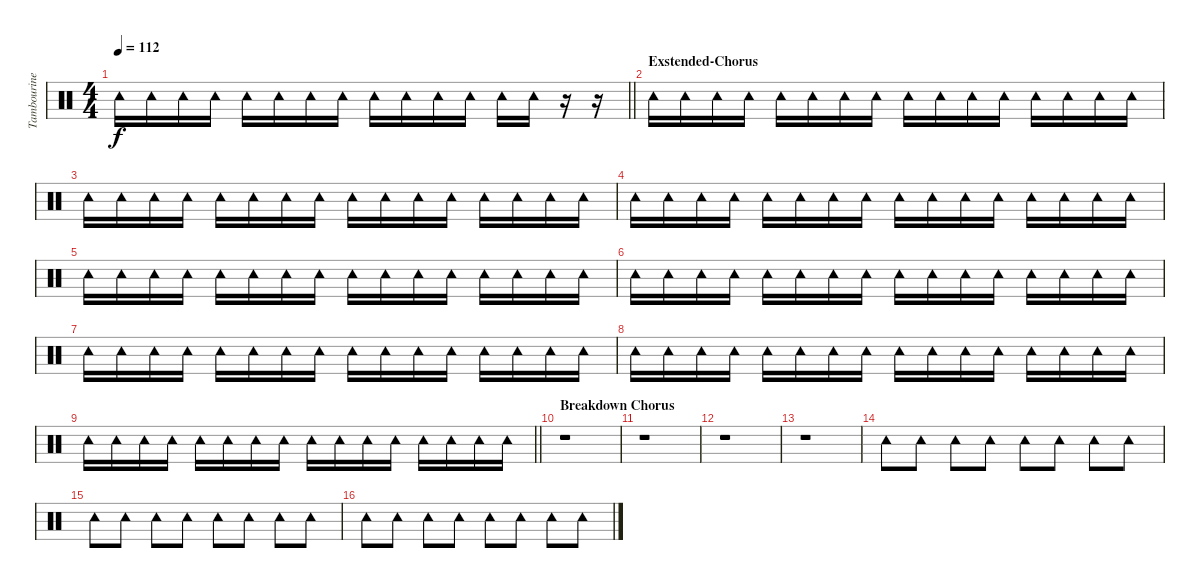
\track ("Tambourine" "Tambourine") {instrument percussion}
\staff {score}
\articulation defaults
\ts (4 4)
\tempo 112
\clef neutral
\barLineRight lightlight
\ks c "Tambourine (hit)".16{dy f} "Tambourine (hit)".16 "Tambourine (hit)".16 "Tambourine (hit)".16 "Tambourine (hit)".16 "Tambourine (hit)".16 "Tambourine (hit)".16 "Tambourine (hit)".16 "Tambourine (hit)".16 "Tambourine (hit)".16 "Tambourine (hit)".16 "Tambourine (hit)".16 "Tambourine (hit)".16 "Tambourine (hit)".16
r.16 r.16 |
\section ("" "Exstended-Chorus")
"Tambourine (hit)".16 "Tambourine (hit)".16 "Tambourine (hit)".16 "Tambourine (hit)".16 "Tambourine (hit)".16 "Tambourine (hit)".16 "Tambourine (hit)".16 "Tambourine (hit)".16 "Tambourine (hit)".16 "Tambourine (hit)".16 "Tambourine (hit)".16 "Tambourine (hit)".16 "Tambourine (hit)".16 "Tambourine (hit)".16 "Tambourine (hit)".16 "Tambourine (hit)".16 |
"Tambourine (hit)".16 "Tambourine (hit)".16 "Tambourine (hit)".16 "Tambourine (hit)".16 "Tambourine (hit)".16 "Tambourine (hit)".16 "Tambourine (hit)".16 "Tambourine (hit)".16 "Tambourine (hit)".16 "Tambourine (hit)".16 "Tambourine (hit)".16 "Tambourine (hit)".16 "Tambourine (hit)".16 "Tambourine (hit)".16 "Tambourine (hit)".16 "Tambourine (hit)".16 |
"Tambourine (hit)".16 "Tambourine (hit)".16 "Tambourine (hit)".16 "Tambourine (hit)".16 "Tambourine (hit)".16 "Tambourine (hit)".16 "Tambourine (hit)".16 "Tambourine (hit)".16 "Tambourine (hit)".16 "Tambourine (hit)".16 "Tambourine (hit)".16 "Tambourine (hit)".16 "Tambourine (hit)".16 "Tambourine (hit)".16 "Tambourine (hit)".16 "Tambourine (hit)".16 |
"Tambourine (hit)".16 "Tambourine (hit)".16 "Tambourine (hit)".16 "Tambourine (hit)".16 "Tambourine (hit)".16 "Tambourine (hit)".16 "Tambourine (hit)".16 "Tambourine (hit)".16 "Tambourine (hit)".16 "Tambourine (hit)".16 "Tambourine (hit)".16 "Tambourine (hit)".16 "Tambourine (hit)".16 "Tambourine (hit)".16 "Tambourine (hit)".16 "Tambourine (hit)".16 |
"Tambourine (hit)".16 "Tambourine (hit)".16 "Tambourine (hit)".16 "Tambourine (hit)".16 "Tambourine (hit)".16 "Tambourine (hit)".16 "Tambourine (hit)".16 "Tambourine (hit)".16 "Tambourine (hit)".16 "Tambourine (hit)".16 "Tambourine (hit)".16 "Tambourine (hit)".16 "Tambourine (hit)".16 "Tambourine (hit)".16 "Tambourine (hit)".16 "Tambourine (hit)".16 |
"Tambourine (hit)".16 "Tambourine (hit)".16 "Tambourine (hit)".16 "Tambourine (hit)".16 "Tambourine (hit)".16 "Tambourine (hit)".16 "Tambourine (hit)".16 "Tambourine (hit)".16 "Tambourine (hit)".16 "Tambourine (hit)".16 "Tambourine (hit)".16 "Tambourine (hit)".16 "Tambourine (hit)".16 "Tambourine (hit)".16 "Tambourine (hit)".16 "Tambourine (hit)".16 |
"Tambourine (hit)".16 "Tambourine (hit)".16 "Tambourine (hit)".16 "Tambourine (hit)".16 "Tambourine (hit)".16 "Tambourine (hit)".16 "Tambourine (hit)".16 "Tambourine (hit)".16 "Tambourine (hit)".16 "Tambourine (hit)".16 "Tambourine (hit)".16 "Tambourine (hit)".16 "Tambourine (hit)".16 "Tambourine (hit)".16 "Tambourine (hit)".16 "Tambourine (hit)".16 |
\barLineRight lightlight "Tambourine (hit)".16 "Tambourine (hit)".16 "Tambourine (hit)".16 "Tambourine (hit)".16 "Tambourine (hit)".16 "Tambourine (hit)".16 "Tambourine (hit)".16 "Tambourine (hit)".16 "Tambourine (hit)".16 "Tambourine (hit)".16 "Tambourine (hit)".16 "Tambourine (hit)".16 "Tambourine (hit)".16 "Tambourine (hit)".16 "Tambourine (hit)".16 "Tambourine (hit)".16
|
\section ("" "Breakdown Chorus")
r.1 |
r.1 |
r.1 |
r.1 |
"Tambourine (hit)".8 "Tambourine (hit)".8 "Tambourine (hit)".8 "Tambourine (hit)".8 "Tambourine (hit)".8 "Tambourine (hit)".8 "Tambourine (hit)".8 "Tambourine (hit)".8 |
"Tambourine (hit)".8 "Tambourine (hit)".8 "Tambourine (hit)".8 "Tambourine (hit)".8 "Tambourine (hit)".8 "Tambourine (hit)".8 "Tambourine (hit)".8 "Tambourine (hit)".8 |
"Tambourine (hit)".8 "Tambourine (hit)".8 "Tambourine (hit)".8 "Tambourine (hit)".8 "Tambourine (hit)".8 "Tambourine (hit)".8 "Tambourine (hit)".8 "Tambourine (hit)".8
